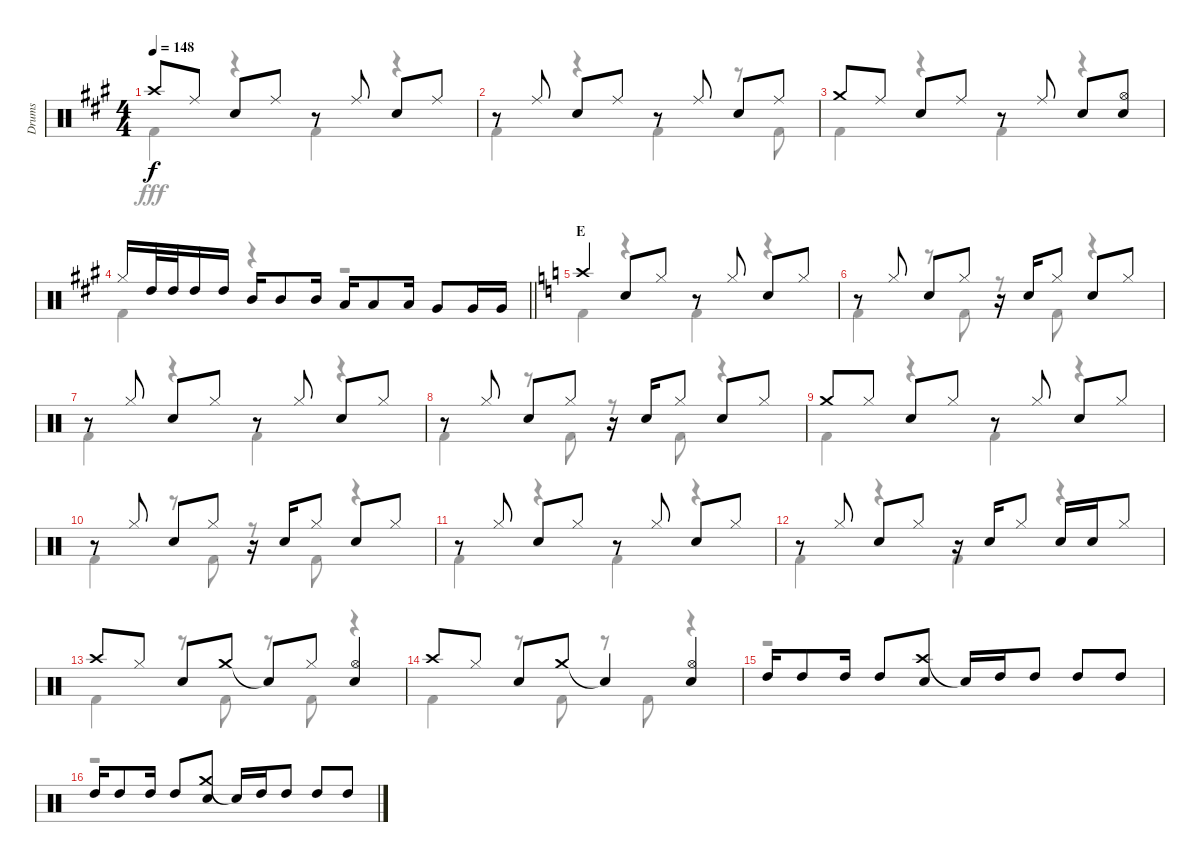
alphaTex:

\track ("Drums" "Drums") {instrument percussion}
\staff {score}
\articulation defaults
\voice
\ts (4 4)
\tempo 148
\clef neutral
\ks a "Crash high (hit)".8{dy f} "Ride (middle)".8 "Snare (hit) 2".8 "Ride (middle)".8
r.8 "Ride (middle)".8 "Snare (hit) 2".8 "Ride (middle)".8 |
r.8 "Ride (middle)".8 "Snare (hit) 2".8 "Ride (middle)".8 r.8 "Ride (middle)".8 "Snare (hit) 2".8 "Ride (middle)".8 |
"Crash medium (hit)".8 "Ride (middle)".8 "Snare (hit) 2".8 "Ride (middle)".8 r.8 "Ride (middle)".8 "Snare (hit) 2".8 ("Hi-Hat (open)" "Snare (hit) 2").8 |
\barLineRight lightlight "Hi-Hat (closed)".16 "High Tom (hit)".32 "High Tom (hit)".32 "High Tom (hit)".16 "High Tom (hit)".16 "Mid Tom (hit)".16 "Mid Tom (hit)".8 "Mid Tom (hit)".16 "Low Tom (hit)".16 "Low Tom (hit)".8 "Low Tom (hit)".16 "Very Low Tom (hit)".8 "Very Low Tom (hit)".16 "Very Low Tom (hit)".16
|
\section ("" "E")
\ks c "Crash high (hit)".4 "Snare (hit) 2".8 "Hi-Hat (closed)".8
r.8 "Hi-Hat (closed)".8 "Snare (hit) 2".8 "Hi-Hat (closed)".8 |
r.8 "Hi-Hat (closed)".8 "Snare (hit) 2".8 "Hi-Hat (closed)".8 r.16 "Snare (hit) 2".16 "Hi-Hat (closed)".8 "Snare (hit) 2".8 "Hi-Hat (closed)".8 |
r.8 "Hi-Hat (closed)".8 "Snare (hit) 2".8 "Hi-Hat (closed)".8 r.8 "Hi-Hat (closed)".8 "Snare (hit) 2".8 "Hi-Hat (closed)".8 |
r.8 "Hi-Hat (closed)".8 "Snare (hit) 2".8 "Hi-Hat (closed)".8 r.16 "Snare (hit) 2".16 "Hi-Hat (closed)".8 "Snare (hit) 2".8 "Hi-Hat (closed)".8 |
"Crash medium (hit)".8 "Hi-Hat (closed)".8 "Snare (hit) 2".8 "Hi-Hat (closed)".8 r.8 "Hi-Hat (closed)".8 "Snare (hit) 2".8 "Hi-Hat (closed)".8 |
r.8 "Hi-Hat (closed)".8 "Snare (hit) 2".8 "Hi-Hat (closed)".8 r.16 "Snare (hit) 2".16 "Hi-Hat (closed)".8 "Snare (hit) 2".8 "Hi-Hat (closed)".8 |
r.8 "Hi-Hat (closed)".8 "Snare (hit) 2".8 "Hi-Hat (closed)".8 r.8 "Hi-Hat (closed)".8 "Snare (hit) 2".8 "Hi-Hat (closed)".8 |
r.8 "Hi-Hat (closed)".8 "Snare (hit) 2".8 "Hi-Hat (closed)".8 r.16 "Snare (hit) 2".16 "Hi-Hat (closed)".8 "Snare (hit) 2".16 "Snare (hit) 2".16 "Hi-Hat (closed)".8 |
"Crash high (hit)".8 "Hi-Hat (closed)".8 "Snare (hit) 2".8 "Crash medium (hit)".8 "Snare (hit)"{t}.8 "Hi-Hat (closed)".8 ("Hi-Hat (open)" "Snare (hit) 2").4 |
"Crash high (hit)".8 "Hi-Hat (closed)".8 "Snare (hit) 2".8 "Crash medium (hit)".8 "Snare (hit)"{t}.4 ("Hi-Hat (open)" "Snare (hit) 2").4 |
"High Tom (hit)".16 "High Tom (hit)".8 "High Tom (hit)".16 "High Tom (hit)".8 ("Crash high (hit)" "Snare (hit) 2").8 "Snare (hit)"{t}.16 "High Tom (hit)".16 "High Tom (hit)".8 "High Tom (hit)".8 "High Tom (hit)".8 |
"High Tom (hit)".16 "High Tom (hit)".8 "High Tom (hit)".16 "High Tom (hit)".8 ("Crash medium (hit)" "Snare (hit) 2").8 "Snare (hit)"{t}.16 "High Tom (hit)".16 "High Tom (hit)".8 "High Tom (hit)".8 "High Tom (hit)".8
\voice
\clef neutral
\ottava regular
\simile none
\ks a "Kick (hit) 2".4{dy fff}
r.4 "Kick (hit) 2".4 r.4 |
"Kick (hit) 2".4 r.4 "Kick (hit) 2".4 r.8 "Kick (hit) 2".8 |
"Kick (hit) 2".4 r.4 "Kick (hit) 2".4 r.4 |
\barLineRight lightlight "Kick (hit) 2".4
r.4 r.2 |
\ks c "Kick (hit) 2".4
r.4 "Kick (hit) 2".4 r.4 |
"Kick (hit) 2".4 r.8 "Kick (hit) 2".8 r.8 "Kick (hit) 2".8 r.4 |
"Kick (hit) 2".4 r.4 "Kick (hit) 2".4 r.4 |
"Kick (hit) 2".4 r.8 "Kick (hit) 2".8 r.8 "Kick (hit) 2".8 r.4 |
"Kick (hit) 2".4 r.4 "Kick (hit) 2".4 r.4 |
"Kick (hit) 2".4 r.8 "Kick (hit) 2".8 r.8 "Kick (hit) 2".8 r.4 |
"Kick (hit) 2".4 r.4 "Kick (hit) 2".4 r.4 |
"Kick (hit) 2".4 r.4 "Kick (hit) 2".4 r.4 |
"Kick (hit) 2".4 r.8 "Kick (hit) 2".8 r.8 "Kick (hit) 2".8 r.4 |
"Kick (hit) 2".4 r.8 "Kick (hit) 2".8 r.8 "Kick (hit) 2".8 r.4 |
r.1 |
r.1
